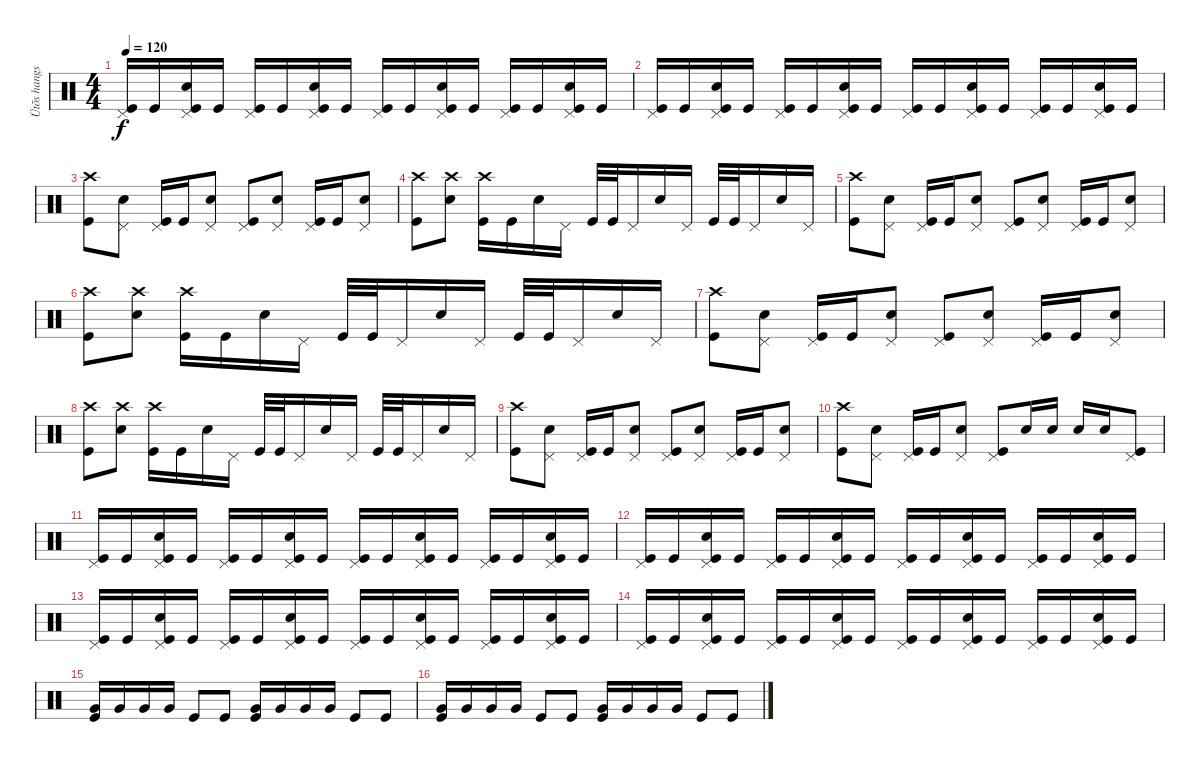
\track ("Ütõs hangszer" "Ütõs hangs") {instrument percussion}
\staff {score}
\articulation defaults
\ts (4 4)
\tempo 120
\clef neutral
\ks c
("Pedal Hi-Hat (hit)" "Kick (hit)").16{dy f} "Kick (hit)".16 ("Pedal Hi-Hat (hit)" "Electric Snare (hit)" "Kick (hit)").16 "Kick (hit)".16 ("Pedal Hi-Hat (hit)" "Kick (hit)").16 "Kick (hit)".16 ("Pedal Hi-Hat (hit)" "Electric Snare (hit)" "Kick (hit)").16 "Kick (hit)".16 ("Pedal Hi-Hat (hit)" "Kick (hit)").16 "Kick (hit)".16 ("Pedal Hi-Hat (hit)" "Electric Snare (hit)" "Kick (hit)").16 "Kick (hit)".16 ("Pedal Hi-Hat (hit)" "Kick (hit)").16 "Kick (hit)".16 ("Pedal Hi-Hat (hit)" "Electric Snare (hit)" "Kick (hit)").16 "Kick (hit)".16 |
("Pedal Hi-Hat (hit)" "Kick (hit)").16 "Kick (hit)".16 ("Pedal Hi-Hat (hit)" "Electric Snare (hit)" "Kick (hit)").16 "Kick (hit)".16 ("Pedal Hi-Hat (hit)" "Kick (hit)").16 "Kick (hit)".16 ("Pedal Hi-Hat (hit)" "Electric Snare (hit)" "Kick (hit)").16 "Kick (hit)".16 ("Pedal Hi-Hat (hit)" "Kick (hit)").16 "Kick (hit)".16 ("Pedal Hi-Hat (hit)" "Electric Snare (hit)" "Kick (hit)").16 "Kick (hit)".16 ("Pedal Hi-Hat (hit)" "Kick (hit)").16 "Kick (hit)".16 ("Pedal Hi-Hat (hit)" "Electric Snare (hit)" "Kick (hit)").16 "Kick (hit)".16 |
("Crash high (hit)" "Kick (hit)").8 ("Pedal Hi-Hat (hit)" "Electric Snare (hit)").8 ("Pedal Hi-Hat (hit)" "Kick (hit)").16 "Kick (hit)".16 ("Pedal Hi-Hat (hit)" "Electric Snare (hit)").8 ("Pedal Hi-Hat (hit)" "Kick (hit)").8 ("Pedal Hi-Hat (hit)" "Electric Snare (hit)").8 ("Pedal Hi-Hat (hit)" "Kick (hit)").16 "Kick (hit)".16 ("Pedal Hi-Hat (hit)" "Electric Snare (hit)").8 |
("Crash high (hit)" "Kick (hit)").8 ("Crash high (hit)" "Electric Snare (hit)").8 ("Crash high (hit)" "Kick (hit)").16 "Kick (hit)".16 "Electric Snare (hit)".16 "Pedal Hi-Hat (hit)".16 "Kick (hit)".32 "Kick (hit)".32 "Pedal Hi-Hat (hit)".16 "Electric Snare (hit)".16 "Pedal Hi-Hat (hit)".16 "Kick (hit)".32 "Kick (hit)".32 "Pedal Hi-Hat (hit)".16 "Electric Snare (hit)".16 "Pedal Hi-Hat (hit)".16 |
("Crash high (hit)" "Kick (hit)").8 ("Pedal Hi-Hat (hit)" "Electric Snare (hit)").8 ("Pedal Hi-Hat (hit)" "Kick (hit)").16 "Kick (hit)".16 ("Pedal Hi-Hat (hit)" "Electric Snare (hit)").8 ("Pedal Hi-Hat (hit)" "Kick (hit)").8 ("Pedal Hi-Hat (hit)" "Electric Snare (hit)").8 ("Pedal Hi-Hat (hit)" "Kick (hit)").16 "Kick (hit)".16 ("Pedal Hi-Hat (hit)" "Electric Snare (hit)").8 |
("Crash high (hit)" "Kick (hit)").8 ("Crash high (hit)" "Electric Snare (hit)").8 ("Crash high (hit)" "Kick (hit)").16 "Kick (hit)".16 "Electric Snare (hit)".16 "Pedal Hi-Hat (hit)".16 "Kick (hit)".32 "Kick (hit)".32 "Pedal Hi-Hat (hit)".16 "Electric Snare (hit)".16 "Pedal Hi-Hat (hit)".16 "Kick (hit)".32 "Kick (hit)".32 "Pedal Hi-Hat (hit)".16 "Electric Snare (hit)".16 "Pedal Hi-Hat (hit)".16 |
("Crash high (hit)" "Kick (hit)").8 ("Pedal Hi-Hat (hit)" "Electric Snare (hit)").8 ("Pedal Hi-Hat (hit)" "Kick (hit)").16 "Kick (hit)".16 ("Pedal Hi-Hat (hit)" "Electric Snare (hit)").8 ("Pedal Hi-Hat (hit)" "Kick (hit)").8 ("Pedal Hi-Hat (hit)" "Electric Snare (hit)").8 ("Pedal Hi-Hat (hit)" "Kick (hit)").16 "Kick (hit)".16 ("Pedal Hi-Hat (hit)" "Electric Snare (hit)").8 |
("Crash high (hit)" "Kick (hit)").8 ("Crash high (hit)" "Electric Snare (hit)").8 ("Crash high (hit)" "Kick (hit)").16 "Kick (hit)".16 "Electric Snare (hit)".16 "Pedal Hi-Hat (hit)".16 "Kick (hit)".32 "Kick (hit)".32 "Pedal Hi-Hat (hit)".16 "Electric Snare (hit)".16 "Pedal Hi-Hat (hit)".16 "Kick (hit)".32 "Kick (hit)".32 "Pedal Hi-Hat (hit)".16 "Electric Snare (hit)".16 "Pedal Hi-Hat (hit)".16 |
("Crash high (hit)" "Kick (hit)").8 ("Pedal Hi-Hat (hit)" "Electric Snare (hit)").8 ("Pedal Hi-Hat (hit)" "Kick (hit)").16 "Kick (hit)".16 ("Pedal Hi-Hat (hit)" "Electric Snare (hit)").8 ("Pedal Hi-Hat (hit)" "Kick (hit)").8 ("Pedal Hi-Hat (hit)" "Electric Snare (hit)").8 ("Pedal Hi-Hat (hit)" "Kick (hit)").16 "Kick (hit)".16 ("Pedal Hi-Hat (hit)" "Electric Snare (hit)").8 |
("Crash high (hit)" "Kick (hit)").8 ("Pedal Hi-Hat (hit)" "Electric Snare (hit)").8 ("Pedal Hi-Hat (hit)" "Kick (hit)").16 "Kick (hit)".16 ("Pedal Hi-Hat (hit)" "Electric Snare (hit)").8 ("Pedal Hi-Hat (hit)" "Kick (hit)").8 "Electric Snare (hit)".16 "Electric Snare (hit)".16 "Electric Snare (hit)".16 "Electric Snare (hit)".16 ("Pedal Hi-Hat (hit)" "Kick (hit)").8 |
("Pedal Hi-Hat (hit)" "Kick (hit)").16 "Kick (hit)".16 ("Pedal Hi-Hat (hit)" "Electric Snare (hit)" "Kick (hit)").16 "Kick (hit)".16 ("Pedal Hi-Hat (hit)" "Kick (hit)").16 "Kick (hit)".16 ("Pedal Hi-Hat (hit)" "Electric Snare (hit)" "Kick (hit)").16 "Kick (hit)".16 ("Pedal Hi-Hat (hit)" "Kick (hit)").16 "Kick (hit)".16 ("Pedal Hi-Hat (hit)" "Electric Snare (hit)" "Kick (hit)").16 "Kick (hit)".16 ("Pedal Hi-Hat (hit)" "Kick (hit)").16 "Kick (hit)".16 ("Pedal Hi-Hat (hit)" "Electric Snare (hit)" "Kick (hit)").16 "Kick (hit)".16 |
("Pedal Hi-Hat (hit)" "Kick (hit)").16 "Kick (hit)".16 ("Pedal Hi-Hat (hit)" "Electric Snare (hit)" "Kick (hit)").16 "Kick (hit)".16 ("Pedal Hi-Hat (hit)" "Kick (hit)").16 "Kick (hit)".16 ("Pedal Hi-Hat (hit)" "Electric Snare (hit)" "Kick (hit)").16 "Kick (hit)".16 ("Pedal Hi-Hat (hit)" "Kick (hit)").16 "Kick (hit)".16 ("Pedal Hi-Hat (hit)" "Electric Snare (hit)" "Kick (hit)").16 "Kick (hit)".16 ("Pedal Hi-Hat (hit)" "Kick (hit)").16 "Kick (hit)".16 ("Pedal Hi-Hat (hit)" "Electric Snare (hit)" "Kick (hit)").16 "Kick (hit)".16 |
("Pedal Hi-Hat (hit)" "Kick (hit)").16 "Kick (hit)".16 ("Pedal Hi-Hat (hit)" "Electric Snare (hit)" "Kick (hit)").16 "Kick (hit)".16 ("Pedal Hi-Hat (hit)" "Kick (hit)").16 "Kick (hit)".16 ("Pedal Hi-Hat (hit)" "Electric Snare (hit)" "Kick (hit)").16 "Kick (hit)".16 ("Pedal Hi-Hat (hit)" "Kick (hit)").16 "Kick (hit)".16 ("Pedal Hi-Hat (hit)" "Electric Snare (hit)" "Kick (hit)").16 "Kick (hit)".16 ("Pedal Hi-Hat (hit)" "Kick (hit)").16 "Kick (hit)".16 ("Pedal Hi-Hat (hit)" "Electric Snare (hit)" "Kick (hit)").16 "Kick (hit)".16 |
("Pedal Hi-Hat (hit)" "Kick (hit)").16 "Kick (hit)".16 ("Pedal Hi-Hat (hit)" "Electric Snare (hit)" "Kick (hit)").16 "Kick (hit)".16 ("Pedal Hi-Hat (hit)" "Kick (hit)").16 "Kick (hit)".16 ("Pedal Hi-Hat (hit)" "Electric Snare (hit)" "Kick (hit)").16 "Kick (hit)".16 ("Pedal Hi-Hat (hit)" "Kick (hit)").16 "Kick (hit)".16 ("Pedal Hi-Hat (hit)" "Electric Snare (hit)" "Kick (hit)").16 "Kick (hit)".16 ("Pedal Hi-Hat (hit)" "Kick (hit)").16 "Kick (hit)".16 ("Pedal Hi-Hat (hit)" "Electric Snare (hit)" "Kick (hit)").16 "Kick (hit)".16 |
("Very Low Tom (hit)" "Kick (hit)").16 "Very Low Tom (hit)".16 "Very Low Tom (hit)".16 "Very Low Tom (hit)".16 "Kick (hit)".8 "Kick (hit)".8 ("Very Low Tom (hit)" "Kick (hit)").16 "Very Low Tom (hit)".16 "Very Low Tom (hit)".16 "Very Low Tom (hit)".16 "Kick (hit)".8 "Kick (hit)".8 |
("Very Low Tom (hit)" "Kick (hit)").16 "Very Low Tom (hit)".16 "Very Low Tom (hit)".16 "Very Low Tom (hit)".16 "Kick (hit)".8 "Kick (hit)".8 ("Very Low Tom (hit)" "Kick (hit)").16 "Very Low Tom (hit)".16 "Very Low Tom (hit)".16 "Very Low Tom (hit)".16 "Kick (hit)".8 "Kick (hit)".8
